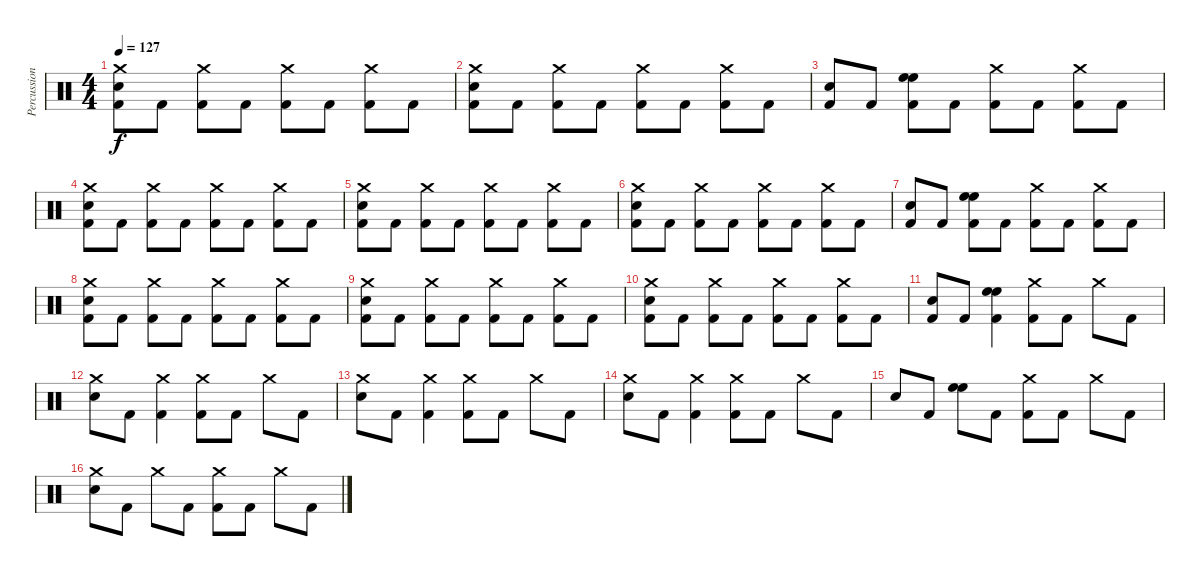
\track ("Percussion" "Percussion") {instrument percussion}
\staff {score}
\articulation defaults
\ts (4 4)
\tempo 127
\clef neutral
\ks c
("Crash medium (hit)" "Electric Snare (hit)" "Kick (hit) 2").8{dy f} "Kick (hit) 2".8 ("Crash medium (hit)" "Kick (hit) 2").8 "Kick (hit) 2".8 ("Crash medium (hit)" "Kick (hit) 2").8 "Kick (hit) 2".8 ("Crash medium (hit)" "Kick (hit) 2").8 "Kick (hit) 2".8 |
("Crash medium (hit)" "Electric Snare (hit)" "Kick (hit) 2").8 "Kick (hit) 2".8 ("Crash medium (hit)" "Kick (hit) 2").8 "Kick (hit) 2".8 ("Crash medium (hit)" "Kick (hit) 2").8 "Kick (hit) 2".8 ("Crash medium (hit)" "Kick (hit) 2").8 "Kick (hit) 2".8 |
("Electric Snare (hit)" "Kick (hit) 2").8 "Kick (hit) 2".8 ("High Floor Tom (hit)" "High Floor Tom (hit)" "Kick (hit) 2").8 "Kick (hit) 2".8 ("Crash medium (hit)" "Kick (hit) 2").8 "Kick (hit) 2".8 ("Crash medium (hit)" "Kick (hit) 2").8 "Kick (hit) 2".8 |
("Crash medium (hit)" "Electric Snare (hit)" "Kick (hit) 2").8 "Kick (hit) 2".8 ("Crash medium (hit)" "Kick (hit) 2").8 "Kick (hit) 2".8 ("Crash medium (hit)" "Kick (hit) 2").8 "Kick (hit) 2".8 ("Crash medium (hit)" "Kick (hit) 2").8 "Kick (hit) 2".8 |
("Crash medium (hit)" "Electric Snare (hit)" "Kick (hit) 2").8 "Kick (hit) 2".8 ("Crash medium (hit)" "Kick (hit) 2").8 "Kick (hit) 2".8 ("Crash medium (hit)" "Kick (hit) 2").8 "Kick (hit) 2".8 ("Crash medium (hit)" "Kick (hit) 2").8 "Kick (hit) 2".8 |
("Crash medium (hit)" "Electric Snare (hit)" "Kick (hit) 2").8 "Kick (hit) 2".8 ("Crash medium (hit)" "Kick (hit) 2").8 "Kick (hit) 2".8 ("Crash medium (hit)" "Kick (hit) 2").8 "Kick (hit) 2".8 ("Crash medium (hit)" "Kick (hit) 2").8 "Kick (hit) 2".8 |
("Electric Snare (hit)" "Kick (hit) 2").8 "Kick (hit) 2".8 ("High Floor Tom (hit)" "High Floor Tom (hit)" "Kick (hit) 2").8 "Kick (hit) 2".8 ("Crash medium (hit)" "Kick (hit) 2").8 "Kick (hit) 2".8 ("Crash medium (hit)" "Kick (hit) 2").8 "Kick (hit) 2".8 |
("Crash medium (hit)" "Electric Snare (hit)" "Kick (hit) 2").8 "Kick (hit) 2".8 ("Crash medium (hit)" "Kick (hit) 2").8 "Kick (hit) 2".8 ("Crash medium (hit)" "Kick (hit) 2").8 "Kick (hit) 2".8 ("Crash medium (hit)" "Kick (hit) 2").8 "Kick (hit) 2".8 |
("Crash medium (hit)" "Electric Snare (hit)" "Kick (hit) 2").8 "Kick (hit) 2".8 ("Crash medium (hit)" "Kick (hit) 2").8 "Kick (hit) 2".8 ("Crash medium (hit)" "Kick (hit) 2").8 "Kick (hit) 2".8 ("Crash medium (hit)" "Kick (hit) 2").8 "Kick (hit) 2".8 |
("Crash medium (hit)" "Electric Snare (hit)" "Kick (hit) 2").8 "Kick (hit) 2".8 ("Crash medium (hit)" "Kick (hit) 2").8 "Kick (hit) 2".8 ("Crash medium (hit)" "Kick (hit) 2").8 "Kick (hit) 2".8 ("Crash medium (hit)" "Kick (hit) 2").8 "Kick (hit) 2".8 |
("Electric Snare (hit)" "Kick (hit) 2").8 "Kick (hit) 2".8 ("High Floor Tom (hit)" "High Floor Tom (hit)" "Kick (hit) 2").4 ("Crash medium (hit)" "Kick (hit) 2").8 "Kick (hit) 2".8 "Crash medium (hit)".8 "Kick (hit) 2".8 |
("Crash medium (hit)" "Electric Snare (hit)").8 "Kick (hit) 2".8 ("Crash medium (hit)" "Kick (hit) 2").4 ("Crash medium (hit)" "Kick (hit) 2").8 "Kick (hit) 2".8 "Crash medium (hit)".8 "Kick (hit) 2".8 |
("Crash medium (hit)" "Electric Snare (hit)").8 "Kick (hit) 2".8 ("Crash medium (hit)" "Kick (hit) 2").4 ("Crash medium (hit)" "Kick (hit) 2").8 "Kick (hit) 2".8 "Crash medium (hit)".8 "Kick (hit) 2".8 |
("Crash medium (hit)" "Electric Snare (hit)").8 "Kick (hit) 2".8 ("Crash medium (hit)" "Kick (hit) 2").4 ("Crash medium (hit)" "Kick (hit) 2").8 "Kick (hit) 2".8 "Crash medium (hit)".8 "Kick (hit) 2".8 |
"Electric Snare (hit)".8 "Kick (hit) 2".8 ("High Floor Tom (hit)" "High Floor Tom (hit)").8 "Kick (hit) 2".8 ("Crash medium (hit)" "Kick (hit) 2").8 "Kick (hit) 2".8 "Crash medium (hit)".8 "Kick (hit) 2".8 |
("Crash medium (hit)" "Electric Snare (hit)").8 "Kick (hit) 2".8 "Crash medium (hit)".8 "Kick (hit) 2".8 ("Crash medium (hit)" "Kick (hit) 2").8 "Kick (hit) 2".8 "Crash medium (hit)".8 "Kick (hit) 2".8
